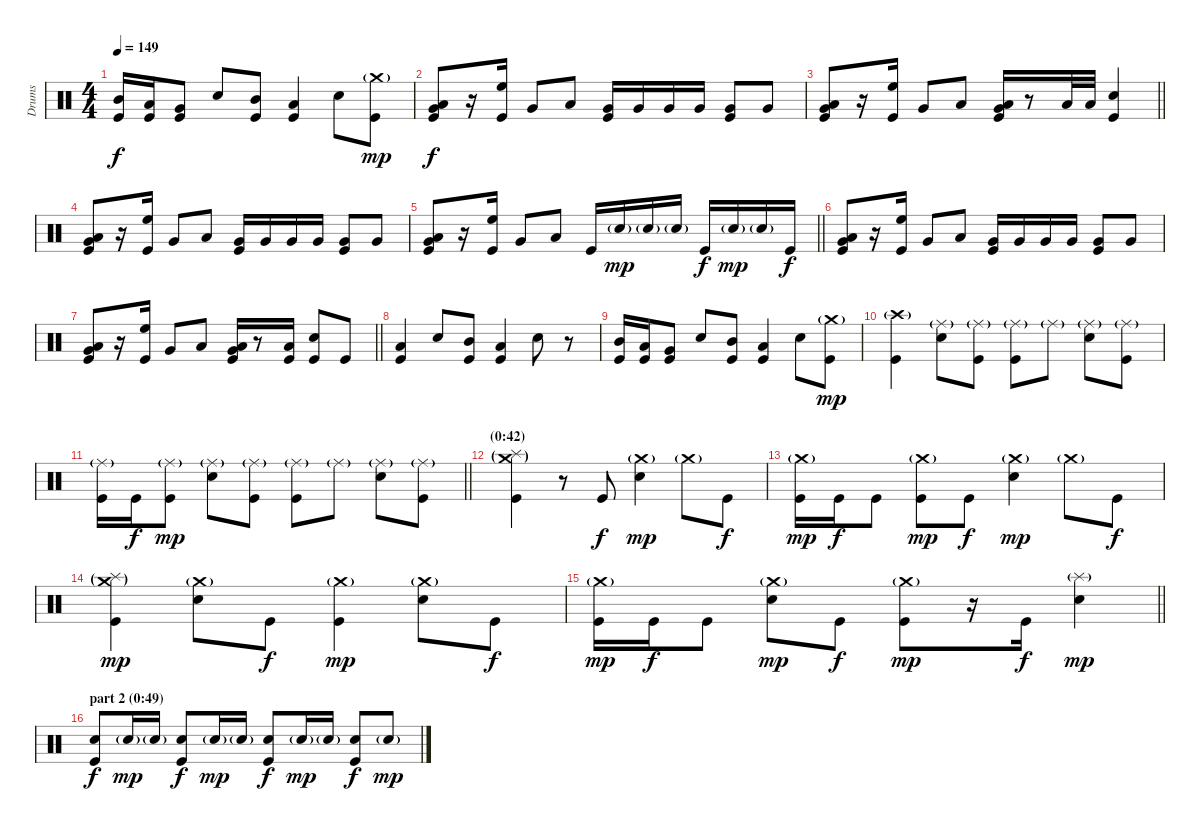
\track ("Drums" "Drums") {instrument percussion}
\staff {score}
\articulation defaults
\ts (4 4)
\tempo 149
\clef neutral
\ks c
("Mid Tom (hit)" "Kick (hit)").16{dy f} ("Low Tom (hit)" "Kick (hit)").16 ("Very Low Tom (hit)" "Kick (hit)").8 "Snare (hit) 2".8 ("Mid Tom (hit)" "Kick (hit)").8 ("Low Tom (hit)" "Kick (hit)").4 "Snare (hit) 2".8 ("Crash medium (hit)"{g} "Kick (hit)").8{dy mp} |
("Very Low Tom (hit)" "Low Tom (hit)" "Kick (hit)").8{dy f} r.16 ("High Floor Tom (hit)" "Kick (hit)").16 "Very Low Tom (hit)".8 "Low Tom (hit)".8 ("Very Low Tom (hit)" "Kick (hit)").16 "Very Low Tom (hit)".16 "Very Low Tom (hit)".16 "Very Low Tom (hit)".16 ("Very Low Tom (hit)" "Kick (hit)").8 "Very Low Tom (hit)".8 |
\barLineRight lightlight
("Very Low Tom (hit)" "Low Tom (hit)" "Kick (hit)").8 r.16 ("High Floor Tom (hit)" "Kick (hit)").16 "Very Low Tom (hit)".8 "Low Tom (hit)".8 ("Very Low Tom (hit)" "Low Tom (hit)" "Kick (hit)").16 r.8 "Low Tom (hit)".32 "Low Tom (hit)".32 ("Snare (hit) 2" "Kick (hit)").4 |
("Very Low Tom (hit)" "Low Tom (hit)" "Kick (hit)").8 r.16 ("High Floor Tom (hit)" "Kick (hit)").16 "Very Low Tom (hit)".8 "Low Tom (hit)".8 ("Very Low Tom (hit)" "Kick (hit)").16 "Very Low Tom (hit)".16 "Very Low Tom (hit)".16 "Very Low Tom (hit)".16 ("Very Low Tom (hit)" "Kick (hit)").8 "Very Low Tom (hit)".8 |
\barLineRight lightlight
("Very Low Tom (hit)" "Low Tom (hit)" "Kick (hit)").8 r.16 ("High Floor Tom (hit)" "Kick (hit)").16 "Very Low Tom (hit)".8 "Low Tom (hit)".8 "Kick (hit)".16 "Snare (hit) 2"{g}.16{dy mp} "Snare (hit) 2"{g}.16 "Snare (hit) 2"{g}.16 "Kick (hit)".16{dy f} "Snare (hit) 2"{g}.16{dy mp} "Snare (hit) 2"{g}.16 "Kick (hit)".16{dy f} |
("Very Low Tom (hit)" "Low Tom (hit)" "Kick (hit)").8 r.16 ("High Floor Tom (hit)" "Kick (hit)").16 "Very Low Tom (hit)".8 "Low Tom (hit)".8 ("Very Low Tom (hit)" "Kick (hit)").16 "Very Low Tom (hit)".16 "Very Low Tom (hit)".16 "Very Low Tom (hit)".16 ("Very Low Tom (hit)" "Kick (hit)").8 "Very Low Tom (hit)".8 |
\barLineRight lightlight
("Very Low Tom (hit)" "Low Tom (hit)" "Kick (hit)").8 r.16 ("High Floor Tom (hit)" "Kick (hit)").16 "Very Low Tom (hit)".8 "Low Tom (hit)".8 ("Very Low Tom (hit)" "Low Tom (hit)" "Kick (hit)").16 r.8 ("Low Tom (hit)" "Kick (hit)").16 ("Snare (hit) 2" "Kick (hit)").8 "Kick (hit)".8 |
("Low Tom (hit)" "Kick (hit)").4 "Snare (hit) 2".8 ("Mid Tom (hit)" "Kick (hit)").8 ("Low Tom (hit)" "Kick (hit)").4 "Snare (hit) 2".8 r.8 |
("Mid Tom (hit)" "Kick (hit)").16 ("Low Tom (hit)" "Kick (hit)").16 ("Very Low Tom (hit)" "Kick (hit)").8 "Snare (hit) 2".8 ("Mid Tom (hit)" "Kick (hit)").8 ("Low Tom (hit)" "Kick (hit)").4 "Snare (hit) 2".8 ("Crash medium (hit)"{g} "Kick (hit)").8{dy mp} |
("Crash high (hit)"{g} "Kick (hit)").4 ("Ride (middle)"{g} "Snare (hit) 2").8 ("Ride (middle)"{g} "Kick (hit)").8 ("Ride (middle)"{g} "Kick (hit)").8 "Ride (middle)"{g}.8 ("Ride (middle)"{g} "Snare (hit) 2").8 ("Ride (middle)"{g} "Kick (hit)").8 |
\barLineRight lightlight
("Ride (middle)"{g} "Kick (hit)").16 "Kick (hit)".16{dy f} ("Ride (middle)"{g} "Kick (hit)").8{dy mp} ("Ride (middle)"{g} "Snare (hit) 2").8 ("Ride (middle)"{g} "Kick (hit)").8 ("Ride (middle)"{g} "Kick (hit)").8 "Ride (middle)"{g}.8 ("Ride (middle)"{g} "Snare (hit) 2").8 ("Ride (middle)"{g} "Kick (hit)").8 |
\section ("" "(0:42)")
("Crash medium (hit)"{g} "Splash (hit)"{g} "Kick (hit)").4 r.8 "Kick (hit)".8{dy f} ("Crash medium (hit)"{g} "Snare (hit) 2").4{dy mp} "Crash medium (hit)"{g}.8 "Kick (hit)".8{dy f} |
("Crash medium (hit)"{g} "Kick (hit)").16{dy mp} "Kick (hit)".16{dy f} "Kick (hit)".8 ("Crash medium (hit)"{g} "Kick (hit)").8{dy mp} "Kick (hit)".8{dy f} ("Crash medium (hit)"{g} "Snare (hit) 2").4{dy mp} "Crash medium (hit)"{g}.8 "Kick (hit)".8{dy f} |
("Crash medium (hit)"{g} "Splash (hit)"{g} "Kick (hit)").4{dy mp} ("Crash medium (hit)"{g} "Snare (hit) 2").8 "Kick (hit)".8{dy f} ("Crash medium (hit)"{g} "Kick (hit)").4{dy mp} ("Crash medium (hit)"{g} "Snare (hit) 2").8 "Kick (hit)".8{dy f} |
\barLineRight lightlight
("Crash medium (hit)"{g} "Kick (hit)").16{dy mp} "Kick (hit)".16{dy f} "Kick (hit)".8 ("Crash medium (hit)"{g} "Snare (hit) 2").8{dy mp} "Kick (hit)".8{dy f} ("Crash medium (hit)"{g} "Kick (hit)").8{dy mp} r.16 "Kick (hit)".16{dy f} ("Splash (hit)"{g} "Snare (hit) 2").4{dy mp} |
\section ("" "part 2 (0:49)")
("Snare (hit) 2" "Kick (hit)").8{dy f} "Snare (hit) 2"{g}.16{dy mp} "Snare (hit) 2"{g}.16 ("Snare (hit) 2" "Kick (hit)").8{dy f} "Snare (hit) 2"{g}.16{dy mp} "Snare (hit) 2"{g}.16 ("Snare (hit) 2" "Kick (hit)").8{dy f} "Snare (hit) 2"{g}.16{dy mp} "Snare (hit) 2"{g}.16 ("Snare (hit) 2" "Kick (hit)").8{dy f} "Snare (hit) 2"{g}.8{dy mp}
